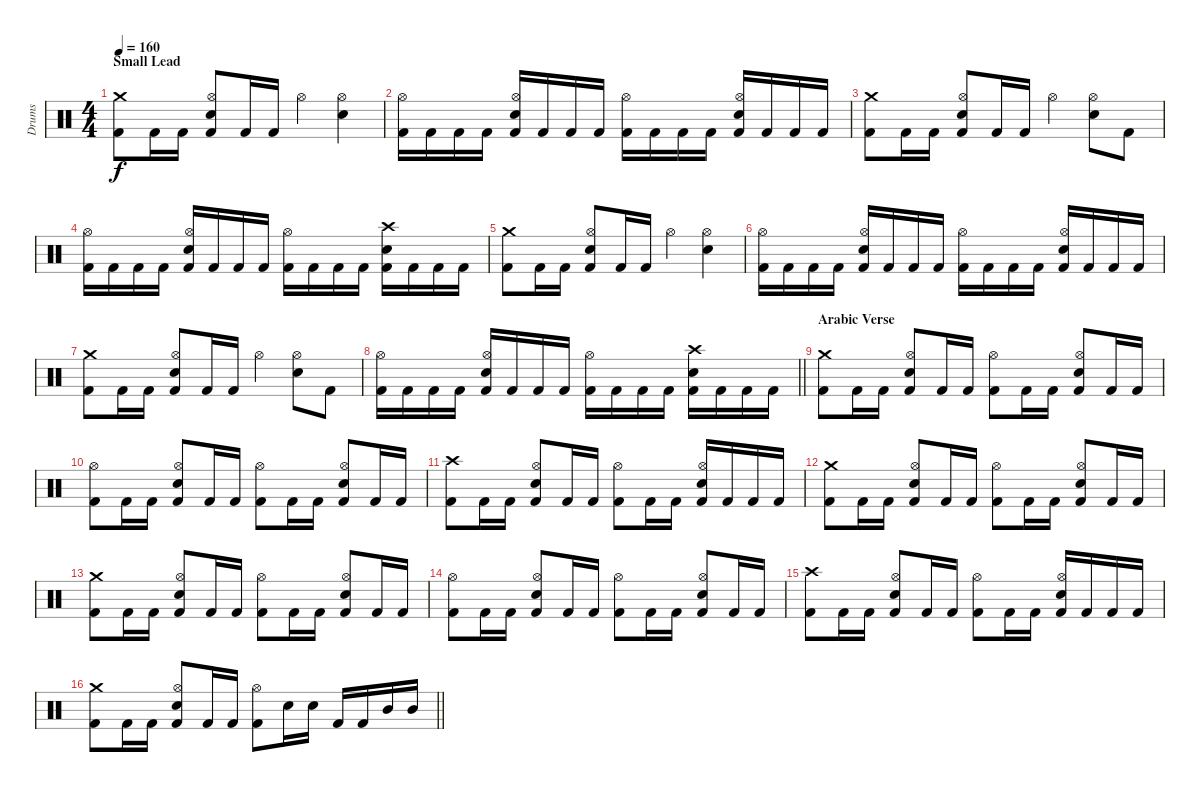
\track ("Drums" "Drums") {instrument percussion}
\staff {score}
\articulation defaults
\ts (4 4)
\section ("" "Small Lead")
\tempo 160
\clef neutral
\ks aminor
("Crash medium (hit)" "Kick (hit) 2").8{dy f} "Kick (hit) 2".16 "Kick (hit) 2".16 ("Hi-Hat (open)" "Electric Snare (hit)" "Kick (hit) 2").8 "Kick (hit) 2".16 "Kick (hit) 2".16 "Hi-Hat (open)".4 ("Hi-Hat (open)" "Electric Snare (hit)").4 |
("Hi-Hat (open)" "Kick (hit) 2").16 "Kick (hit) 2".16 "Kick (hit) 2".16 "Kick (hit) 2".16 ("Hi-Hat (open)" "Electric Snare (hit)" "Kick (hit) 2").16 "Kick (hit) 2".16 "Kick (hit) 2".16 "Kick (hit) 2".16 ("Hi-Hat (open)" "Kick (hit) 2").16 "Kick (hit) 2".16 "Kick (hit) 2".16 "Kick (hit) 2".16 ("Hi-Hat (open)" "Electric Snare (hit)" "Kick (hit) 2").16 "Kick (hit) 2".16 "Kick (hit) 2".16 "Kick (hit) 2".16 |
("Crash medium (hit)" "Kick (hit) 2").8 "Kick (hit) 2".16 "Kick (hit) 2".16 ("Hi-Hat (open)" "Electric Snare (hit)" "Kick (hit) 2").8 "Kick (hit) 2".16 "Kick (hit) 2".16 "Hi-Hat (open)".4 ("Hi-Hat (open)" "Electric Snare (hit)").8 "Kick (hit) 2".8 |
("Hi-Hat (open)" "Kick (hit) 2").16 "Kick (hit) 2".16 "Kick (hit) 2".16 "Kick (hit) 2".16 ("Hi-Hat (open)" "Electric Snare (hit)" "Kick (hit) 2").16 "Kick (hit) 2".16 "Kick (hit) 2".16 "Kick (hit) 2".16 ("Hi-Hat (open)" "Kick (hit) 2").16 "Kick (hit) 2".16 "Kick (hit) 2".16 "Kick (hit) 2".16 ("Crash high (hit)" "Electric Snare (hit)" "Kick (hit) 2").16 "Kick (hit) 2".16 "Kick (hit) 2".16 "Kick (hit) 2".16 |
("Crash medium (hit)" "Kick (hit) 2").8 "Kick (hit) 2".16 "Kick (hit) 2".16 ("Hi-Hat (open)" "Electric Snare (hit)" "Kick (hit) 2").8 "Kick (hit) 2".16 "Kick (hit) 2".16 "Hi-Hat (open)".4 ("Hi-Hat (open)" "Electric Snare (hit)").4 |
("Hi-Hat (open)" "Kick (hit) 2").16 "Kick (hit) 2".16 "Kick (hit) 2".16 "Kick (hit) 2".16 ("Hi-Hat (open)" "Electric Snare (hit)" "Kick (hit) 2").16 "Kick (hit) 2".16 "Kick (hit) 2".16 "Kick (hit) 2".16 ("Hi-Hat (open)" "Kick (hit) 2").16 "Kick (hit) 2".16 "Kick (hit) 2".16 "Kick (hit) 2".16 ("Hi-Hat (open)" "Electric Snare (hit)" "Kick (hit) 2").16 "Kick (hit) 2".16 "Kick (hit) 2".16 "Kick (hit) 2".16 |
("Crash medium (hit)" "Kick (hit) 2").8 "Kick (hit) 2".16 "Kick (hit) 2".16 ("Hi-Hat (open)" "Electric Snare (hit)" "Kick (hit) 2").8 "Kick (hit) 2".16 "Kick (hit) 2".16 "Hi-Hat (open)".4 ("Hi-Hat (open)" "Electric Snare (hit)").8 "Kick (hit) 2".8 |
\barLineRight lightlight
("Hi-Hat (open)" "Kick (hit) 2").16 "Kick (hit) 2".16 "Kick (hit) 2".16 "Kick (hit) 2".16 ("Hi-Hat (open)" "Electric Snare (hit)" "Kick (hit) 2").16 "Kick (hit) 2".16 "Kick (hit) 2".16 "Kick (hit) 2".16 ("Hi-Hat (open)" "Kick (hit) 2").16 "Kick (hit) 2".16 "Kick (hit) 2".16 "Kick (hit) 2".16 ("Crash high (hit)" "Electric Snare (hit)" "Kick (hit) 2").16 "Kick (hit) 2".16 "Kick (hit) 2".16 "Kick (hit) 2".16 |
\section ("" "Arabic Verse")
("Crash medium (hit)" "Kick (hit) 2").8 "Kick (hit) 2".16 "Kick (hit) 2".16 ("Hi-Hat (open)" "Electric Snare (hit)" "Kick (hit) 2").8 "Kick (hit) 2".16 "Kick (hit) 2".16 ("Hi-Hat (open)" "Kick (hit) 2").8 "Kick (hit) 2".16 "Kick (hit) 2".16 ("Hi-Hat (open)" "Electric Snare (hit)" "Kick (hit) 2").8 "Kick (hit) 2".16 "Kick (hit) 2".16 |
("Hi-Hat (open)" "Kick (hit) 2").8 "Kick (hit) 2".16 "Kick (hit) 2".16 ("Hi-Hat (open)" "Electric Snare (hit)" "Kick (hit) 2").8 "Kick (hit) 2".16 "Kick (hit) 2".16 ("Hi-Hat (open)" "Kick (hit) 2").8 "Kick (hit) 2".16 "Kick (hit) 2".16 ("Hi-Hat (open)" "Electric Snare (hit)" "Kick (hit) 2").8 "Kick (hit) 2".16 "Kick (hit) 2".16 |
("Crash high (hit)" "Kick (hit) 2").8 "Kick (hit) 2".16 "Kick (hit) 2".16 ("Hi-Hat (open)" "Electric Snare (hit)" "Kick (hit) 2").8 "Kick (hit) 2".16 "Kick (hit) 2".16 ("Hi-Hat (open)" "Kick (hit) 2").8 "Kick (hit) 2".16 "Kick (hit) 2".16 ("Hi-Hat (open)" "Electric Snare (hit)" "Kick (hit) 2").16 "Kick (hit) 2".16 "Kick (hit) 2".16 "Kick (hit) 2".16 |
("Crash medium (hit)" "Kick (hit) 2").8 "Kick (hit) 2".16 "Kick (hit) 2".16 ("Hi-Hat (open)" "Electric Snare (hit)" "Kick (hit) 2").8 "Kick (hit) 2".16 "Kick (hit) 2".16 ("Hi-Hat (open)" "Kick (hit) 2").8 "Kick (hit) 2".16 "Kick (hit) 2".16 ("Hi-Hat (open)" "Electric Snare (hit)" "Kick (hit) 2").8 "Kick (hit) 2".16 "Kick (hit) 2".16 |
("Crash medium (hit)" "Kick (hit) 2").8 "Kick (hit) 2".16 "Kick (hit) 2".16 ("Hi-Hat (open)" "Electric Snare (hit)" "Kick (hit) 2").8 "Kick (hit) 2".16 "Kick (hit) 2".16 ("Hi-Hat (open)" "Kick (hit) 2").8 "Kick (hit) 2".16 "Kick (hit) 2".16 ("Hi-Hat (open)" "Electric Snare (hit)" "Kick (hit) 2").8 "Kick (hit) 2".16 "Kick (hit) 2".16 |
("Hi-Hat (open)" "Kick (hit) 2").8 "Kick (hit) 2".16 "Kick (hit) 2".16 ("Hi-Hat (open)" "Electric Snare (hit)" "Kick (hit) 2").8 "Kick (hit) 2".16 "Kick (hit) 2".16 ("Hi-Hat (open)" "Kick (hit) 2").8 "Kick (hit) 2".16 "Kick (hit) 2".16 ("Hi-Hat (open)" "Electric Snare (hit)" "Kick (hit) 2").8 "Kick (hit) 2".16 "Kick (hit) 2".16 |
("Crash high (hit)" "Kick (hit) 2").8 "Kick (hit) 2".16 "Kick (hit) 2".16 ("Hi-Hat (open)" "Electric Snare (hit)" "Kick (hit) 2").8 "Kick (hit) 2".16 "Kick (hit) 2".16 ("Hi-Hat (open)" "Kick (hit) 2").8 "Kick (hit) 2".16 "Kick (hit) 2".16 ("Hi-Hat (open)" "Electric Snare (hit)" "Kick (hit) 2").16 "Kick (hit) 2".16 "Kick (hit) 2".16 "Kick (hit) 2".16 |
\barLineRight lightlight
("Crash medium (hit)" "Kick (hit) 2").8 "Kick (hit) 2".16 "Kick (hit) 2".16 ("Hi-Hat (open)" "Electric Snare (hit)" "Kick (hit) 2").8 "Kick (hit) 2".16 "Kick (hit) 2".16 ("Hi-Hat (open)" "Kick (hit) 2").8 "Electric Snare (hit)".16 "Snare (hit) 2".16 "Kick (hit) 2".16 "Kick (hit) 2".16 "Mid Tom (hit)".16 "Mid Tom (hit)".16
